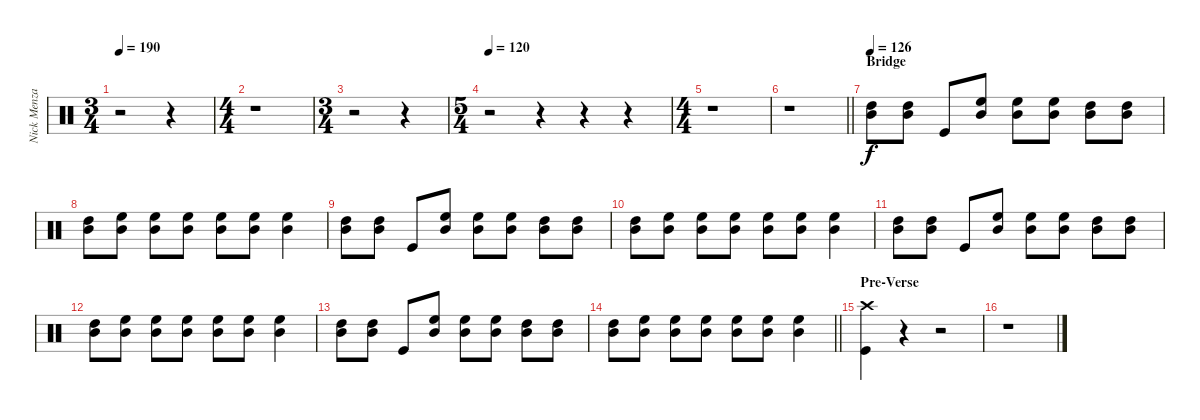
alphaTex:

\track ("Nick Menza" "Nick Menza") {instrument percussion}
\staff {score}
\articulation defaults
\ts (3 4)
\tempo 190
\clef neutral
\ks c
r.2{dy f} r.4 |
\ts (4 4)
r.1 |
\ts (3 4)
r.2 r.4 |
\ts (5 4)
\tempo 120
r.2 r.4 r.4 r.4 |
\ts (4 4)
r.1 |
\barLineRight lightlight
r.1 |
\section ("" "Bridge")
\tempo 126
("High Tom (hit)" "Mid Tom (hit)").8 ("High Tom (hit)" "Mid Tom (hit)").8 "Kick (hit)".8 ("High Floor Tom (hit)" "Mid Tom (hit)").8 ("High Floor Tom (hit)" "Mid Tom (hit)").8 ("High Floor Tom (hit)" "Mid Tom (hit)").8 ("High Tom (hit)" "Mid Tom (hit)").8 ("High Tom (hit)" "Mid Tom (hit)").8 |
("High Tom (hit)" "Mid Tom (hit)").8 ("High Floor Tom (hit)" "Mid Tom (hit)").8 ("High Floor Tom (hit)" "Mid Tom (hit)").8 ("High Floor Tom (hit)" "Mid Tom (hit)").8 ("High Floor Tom (hit)" "Mid Tom (hit)").8 ("High Floor Tom (hit)" "Mid Tom (hit)").8 ("High Floor Tom (hit)" "Mid Tom (hit)").4 |
("High Tom (hit)" "Mid Tom (hit)").8 ("High Tom (hit)" "Mid Tom (hit)").8 "Kick (hit)".8 ("High Floor Tom (hit)" "Mid Tom (hit)").8 ("High Floor Tom (hit)" "Mid Tom (hit)").8 ("High Floor Tom (hit)" "Mid Tom (hit)").8 ("High Tom (hit)" "Mid Tom (hit)").8 ("High Tom (hit)" "Mid Tom (hit)").8 |
("High Tom (hit)" "Mid Tom (hit)").8 ("High Floor Tom (hit)" "Mid Tom (hit)").8 ("High Floor Tom (hit)" "Mid Tom (hit)").8 ("High Floor Tom (hit)" "Mid Tom (hit)").8 ("High Floor Tom (hit)" "Mid Tom (hit)").8 ("High Floor Tom (hit)" "Mid Tom (hit)").8 ("High Floor Tom (hit)" "Mid Tom (hit)").4 |
("High Tom (hit)" "Mid Tom (hit)").8 ("High Tom (hit)" "Mid Tom (hit)").8 "Kick (hit)".8 ("High Floor Tom (hit)" "Mid Tom (hit)").8 ("High Floor Tom (hit)" "Mid Tom (hit)").8 ("High Floor Tom (hit)" "Mid Tom (hit)").8 ("High Tom (hit)" "Mid Tom (hit)").8 ("High Tom (hit)" "Mid Tom (hit)").8 |
("High Tom (hit)" "Mid Tom (hit)").8 ("High Floor Tom (hit)" "Mid Tom (hit)").8 ("High Floor Tom (hit)" "Mid Tom (hit)").8 ("High Floor Tom (hit)" "Mid Tom (hit)").8 ("High Floor Tom (hit)" "Mid Tom (hit)").8 ("High Floor Tom (hit)" "Mid Tom (hit)").8 ("High Floor Tom (hit)" "Mid Tom (hit)").4 |
("High Tom (hit)" "Mid Tom (hit)").8 ("High Tom (hit)" "Mid Tom (hit)").8 "Kick (hit)".8 ("High Floor Tom (hit)" "Mid Tom (hit)").8 ("High Floor Tom (hit)" "Mid Tom (hit)").8 ("High Floor Tom (hit)" "Mid Tom (hit)").8 ("High Tom (hit)" "Mid Tom (hit)").8 ("High Tom (hit)" "Mid Tom (hit)").8 |
\barLineRight lightlight
("High Tom (hit)" "Mid Tom (hit)").8 ("High Floor Tom (hit)" "Mid Tom (hit)").8 ("High Floor Tom (hit)" "Mid Tom (hit)").8 ("High Floor Tom (hit)" "Mid Tom (hit)").8 ("High Floor Tom (hit)" "Mid Tom (hit)").8 ("High Floor Tom (hit)" "Mid Tom (hit)").8 ("High Floor Tom (hit)" "Mid Tom (hit)").4 |
\section ("" "Pre-Verse")
("Kick (hit)" "Crash high (hit)").4 r.4 r.2 |
r.1
